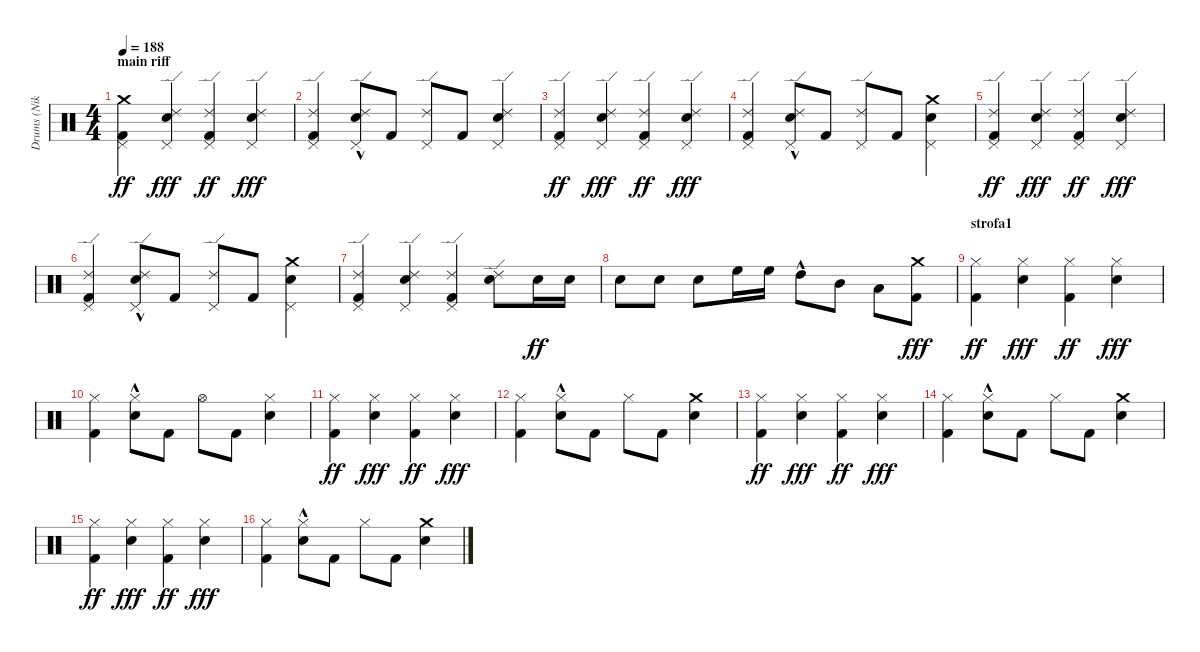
\track ("Drums (Niko)" "Drums (Nik") {instrument percussion}
\staff {score}
\articulation defaults
\ts (4 4)
\section ("" "main riff")
\tempo 188
\clef neutral
\ks c
("Crash medium (hit)" "Pedal Hi-Hat (hit)" "Kick (hit) 2").4{dy ff} ("Ride (edge) 2" "Electric Snare (hit)" "Pedal Hi-Hat (hit)").4{dy fff} ("Ride (edge) 2" "Pedal Hi-Hat (hit)" "Kick (hit) 2").4{dy ff} ("Ride (edge) 2" "Electric Snare (hit)" "Pedal Hi-Hat (hit)").4{dy fff} |
("Ride (edge) 2" "Pedal Hi-Hat (hit)" "Kick (hit) 2").4 ("Ride (edge) 2" "Electric Snare (hit)"{hac} "Pedal Hi-Hat (hit)").8 "Kick (hit) 2".8 ("Ride (edge) 2" "Pedal Hi-Hat (hit)").8 "Kick (hit) 2".8 ("Ride (edge) 2" "Electric Snare (hit)" "Pedal Hi-Hat (hit)").4 |
("Ride (edge) 2" "Pedal Hi-Hat (hit)" "Kick (hit) 2").4{dy ff} ("Ride (edge) 2" "Electric Snare (hit)" "Pedal Hi-Hat (hit)").4{dy fff} ("Ride (edge) 2" "Pedal Hi-Hat (hit)" "Kick (hit) 2").4{dy ff} ("Ride (edge) 2" "Electric Snare (hit)" "Pedal Hi-Hat (hit)").4{dy fff} |
("Ride (edge) 2" "Pedal Hi-Hat (hit)" "Kick (hit) 2").4 ("Ride (edge) 2" "Electric Snare (hit)"{hac} "Pedal Hi-Hat (hit)").8 "Kick (hit) 2".8 ("Ride (edge) 2" "Pedal Hi-Hat (hit)").8 "Kick (hit) 2".8 ("Crash medium (hit)" "Electric Snare (hit)" "Pedal Hi-Hat (hit)").4 |
("Ride (edge) 2" "Pedal Hi-Hat (hit)" "Kick (hit) 2").4{dy ff} ("Ride (edge) 2" "Electric Snare (hit)" "Pedal Hi-Hat (hit)").4{dy fff} ("Ride (edge) 2" "Pedal Hi-Hat (hit)" "Kick (hit) 2").4{dy ff} ("Ride (edge) 2" "Electric Snare (hit)" "Pedal Hi-Hat (hit)").4{dy fff} |
("Ride (edge) 2" "Pedal Hi-Hat (hit)" "Kick (hit) 2").4 ("Ride (edge) 2" "Electric Snare (hit)"{hac} "Pedal Hi-Hat (hit)").8 "Kick (hit) 2".8 ("Ride (edge) 2" "Pedal Hi-Hat (hit)").8 "Kick (hit) 2".8 ("Crash medium (hit)" "Electric Snare (hit)" "Pedal Hi-Hat (hit)").4 |
("Ride (edge) 2" "Pedal Hi-Hat (hit)" "Kick (hit) 2").4 ("Ride (edge) 2" "Electric Snare (hit)" "Pedal Hi-Hat (hit)").4 ("Ride (edge) 2" "Pedal Hi-Hat (hit)" "Kick (hit) 2").4 ("Ride (edge) 2" "Electric Snare (hit)").8 "Electric Snare (hit)".16{dy ff} "Electric Snare (hit)".16 |
"Electric Snare (hit)".8 "Electric Snare (hit)".8 "Electric Snare (hit)".8 "High Floor Tom (hit)".16 "High Floor Tom (hit)".16 "High Tom (hit)"{hac}.8 "Mid Tom (hit)".8 "Low Tom (hit)".8 ("Crash medium (hit)" "Kick (hit) 2").8{dy fff} |
\section ("" "strofa1")
("Hi-Hat (closed)" "Kick (hit) 2").4{dy ff} ("Hi-Hat (closed)" "Electric Snare (hit)").4{dy fff} ("Hi-Hat (closed)" "Kick (hit) 2").4{dy ff} ("Hi-Hat (closed)" "Electric Snare (hit)").4{dy fff} |
("Hi-Hat (closed)" "Kick (hit) 2").4 ("Hi-Hat (closed)" "Electric Snare (hit)"{hac}).8 "Kick (hit) 2".8 "Hi-Hat (open)".8 "Kick (hit) 2".8 ("Hi-Hat (closed)" "Electric Snare (hit)").4 |
("Hi-Hat (closed)" "Kick (hit) 2").4{dy ff} ("Hi-Hat (closed)" "Electric Snare (hit)").4{dy fff} ("Hi-Hat (closed)" "Kick (hit) 2").4{dy ff} ("Hi-Hat (closed)" "Electric Snare (hit)").4{dy fff} |
("Hi-Hat (closed)" "Kick (hit) 2").4 ("Hi-Hat (closed)" "Electric Snare (hit)"{hac}).8 "Kick (hit) 2".8 "Hi-Hat (closed)".8 "Kick (hit) 2".8 ("Crash medium (hit)" "Electric Snare (hit)").4 |
("Hi-Hat (closed)" "Kick (hit) 2").4{dy ff} ("Hi-Hat (closed)" "Electric Snare (hit)").4{dy fff} ("Hi-Hat (closed)" "Kick (hit) 2").4{dy ff} ("Hi-Hat (closed)" "Electric Snare (hit)").4{dy fff} |
("Hi-Hat (closed)" "Kick (hit) 2").4 ("Hi-Hat (closed)" "Electric Snare (hit)"{hac}).8 "Kick (hit) 2".8 "Hi-Hat (closed)".8 "Kick (hit) 2".8 ("Crash medium (hit)" "Electric Snare (hit)").4 |
("Hi-Hat (closed)" "Kick (hit) 2").4{dy ff} ("Hi-Hat (closed)" "Electric Snare (hit)").4{dy fff} ("Hi-Hat (closed)" "Kick (hit) 2").4{dy ff} ("Hi-Hat (closed)" "Electric Snare (hit)").4{dy fff} |
("Hi-Hat (closed)" "Kick (hit) 2").4 ("Hi-Hat (closed)" "Electric Snare (hit)"{hac}).8 "Kick (hit) 2".8 "Hi-Hat (closed)".8 "Kick (hit) 2".8 ("Crash medium (hit)" "Electric Snare (hit)").4
